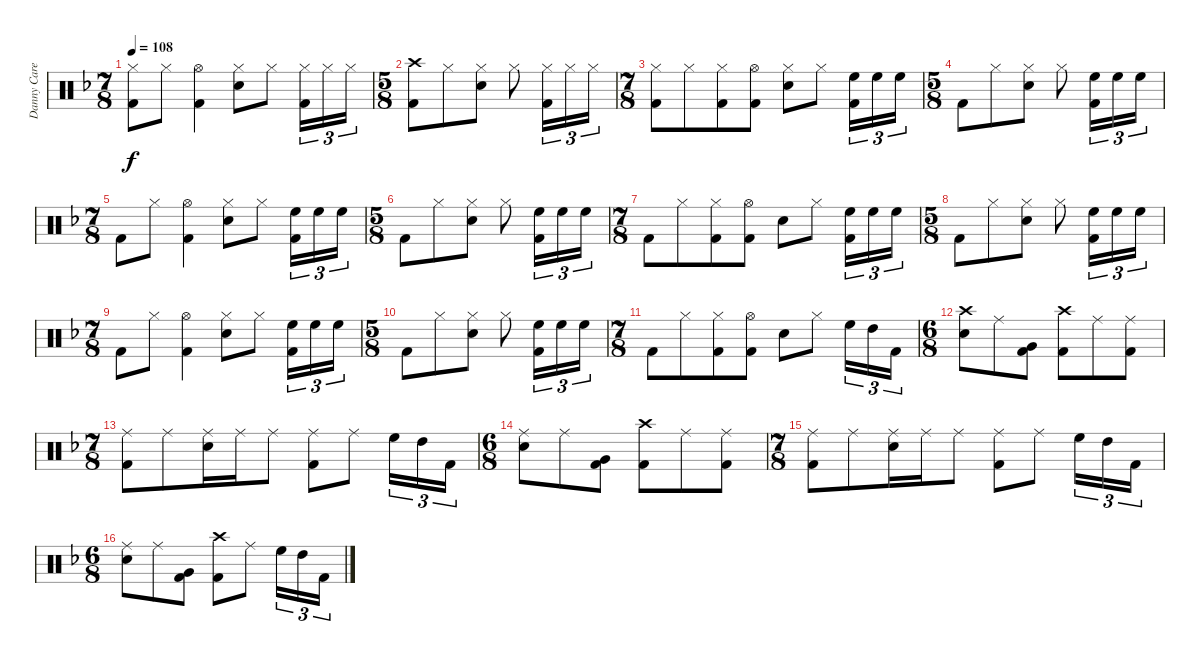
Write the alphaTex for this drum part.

\track ("Danny Carey" "Danny Care") {instrument percussion}
\staff {score}
\articulation defaults
\ts (7 8)
\tempo 108
\clef neutral
\ks dminor
("Hi-Hat (closed)" "Kick (hit) 2").8{dy f} "Hi-Hat (closed)".8 ("Hi-Hat (open)" "Kick (hit) 2").4 ("Hi-Hat (closed)" "Electric Snare (hit)").8 "Hi-Hat (closed)".8 ("Hi-Hat (closed)" "Kick (hit) 2").16{tu (3 2)} "Hi-Hat (closed)".16{tu (3 2)} "Hi-Hat (closed)".16{tu (3 2)} |
\ts (5 8)
("Crash high (hit)" "Kick (hit) 2").8 "Hi-Hat (closed)".8 ("Hi-Hat (closed)" "Electric Snare (hit)").8 "Hi-Hat (closed)".8 ("Hi-Hat (closed)" "Kick (hit) 2").16{tu (3 2)} "Hi-Hat (closed)".16{tu (3 2)} "Hi-Hat (closed)".16{tu (3 2)} |
\ts (7 8)
("Hi-Hat (closed)" "Kick (hit) 2").8 "Hi-Hat (closed)".8 ("Hi-Hat (closed)" "Kick (hit) 2").8 ("Hi-Hat (open)" "Kick (hit) 2").8 ("Hi-Hat (closed)" "Electric Snare (hit)").8 "Hi-Hat (closed)".8 ("High Floor Tom (hit)" "Kick (hit) 2").16{tu (3 2)} "High Floor Tom (hit)".16{tu (3 2)} "High Floor Tom (hit)".16{tu (3 2)} |
\ts (5 8)
"Kick (hit) 2".8 "Hi-Hat (closed)".8 ("Hi-Hat (closed)" "Electric Snare (hit)").8 "Hi-Hat (closed)".8 ("High Floor Tom (hit)" "Kick (hit) 2").16{tu (3 2)} "High Floor Tom (hit)".16{tu (3 2)} "High Floor Tom (hit)".16{tu (3 2)} |
\ts (7 8)
"Kick (hit) 2".8 "Hi-Hat (closed)".8 ("Hi-Hat (open)" "Kick (hit) 2").4 ("Hi-Hat (closed)" "Electric Snare (hit)").8 "Hi-Hat (closed)".8 ("High Floor Tom (hit)" "Kick (hit) 2").16{tu (3 2)} "High Floor Tom (hit)".16{tu (3 2)} "High Floor Tom (hit)".16{tu (3 2)} |
\ts (5 8)
"Kick (hit) 2".8 "Hi-Hat (closed)".8 ("Hi-Hat (closed)" "Electric Snare (hit)").8 "Hi-Hat (closed)".8 ("High Floor Tom (hit)" "Kick (hit) 2").16{tu (3 2)} "High Floor Tom (hit)".16{tu (3 2)} "High Floor Tom (hit)".16{tu (3 2)} |
\ts (7 8)
"Kick (hit) 2".8 "Hi-Hat (closed)".8 ("Hi-Hat (closed)" "Kick (hit) 2").8 ("Hi-Hat (open)" "Kick (hit) 2").8 "Electric Snare (hit)".8 "Hi-Hat (closed)".8 ("High Floor Tom (hit)" "Kick (hit) 2").16{tu (3 2)} "High Floor Tom (hit)".16{tu (3 2)} "High Floor Tom (hit)".16{tu (3 2)} |
\ts (5 8)
"Kick (hit) 2".8 "Hi-Hat (closed)".8 ("Hi-Hat (closed)" "Electric Snare (hit)").8 "Hi-Hat (closed)".8 ("High Floor Tom (hit)" "Kick (hit) 2").16{tu (3 2)} "High Floor Tom (hit)".16{tu (3 2)} "High Floor Tom (hit)".16{tu (3 2)} |
\ts (7 8)
"Kick (hit) 2".8 "Hi-Hat (closed)".8 ("Hi-Hat (open)" "Kick (hit) 2").4 ("Hi-Hat (closed)" "Electric Snare (hit)").8 "Hi-Hat (closed)".8 ("High Floor Tom (hit)" "Kick (hit) 2").16{tu (3 2)} "High Floor Tom (hit)".16{tu (3 2)} "High Floor Tom (hit)".16{tu (3 2)} |
\ts (5 8)
"Kick (hit) 2".8 "Hi-Hat (closed)".8 ("Hi-Hat (closed)" "Electric Snare (hit)").8 "Hi-Hat (closed)".8 ("High Floor Tom (hit)" "Kick (hit) 2").16{tu (3 2)} "High Floor Tom (hit)".16{tu (3 2)} "High Floor Tom (hit)".16{tu (3 2)} |
\ts (7 8)
"Kick (hit) 2".8 "Hi-Hat (closed)".8 ("Hi-Hat (closed)" "Kick (hit) 2").8 ("Hi-Hat (open)" "Kick (hit) 2").8 "Electric Snare (hit)".8 "Hi-Hat (closed)".8 "High Floor Tom (hit)".16{tu (3 2)} "High Tom (hit)".16{tu (3 2)} "Kick (hit) 2".16{tu (3 2)} |
\ts (6 8)
("Crash high (hit)" "Electric Snare (hit)").8 "Ride (middle)".8 ("Very Low Tom (hit)" "Kick (hit) 2").8 ("Crash high (hit)" "Kick (hit) 2").8 "Ride (middle)".8 ("Ride (middle)" "Kick (hit) 2").8 |
\ts (7 8)
("Ride (middle)" "Kick (hit) 2").8 "Ride (middle)".8 ("Ride (middle)" "Electric Snare (hit)").16 "Ride (middle)".16 "Ride (middle)".8 ("Ride (middle)" "Kick (hit) 2").8 "Ride (middle)".8 "High Floor Tom (hit)".16{tu (3 2)} "High Tom (hit)".16{tu (3 2)} "Kick (hit) 2".16{tu (3 2)} |
\ts (6 8)
("Ride (middle)" "Electric Snare (hit)").8 "Ride (middle)".8 ("Very Low Tom (hit)" "Kick (hit) 2").8 ("Crash high (hit)" "Kick (hit) 2").8 "Ride (middle)".8 ("Ride (middle)" "Kick (hit) 2").8 |
\ts (7 8)
("Ride (middle)" "Kick (hit) 2").8 "Ride (middle)".8 ("Ride (middle)" "Electric Snare (hit)").16 "Ride (middle)".16 "Ride (middle)".8 ("Ride (middle)" "Kick (hit) 2").8 "Ride (middle)".8 "High Floor Tom (hit)".16{tu (3 2)} "High Tom (hit)".16{tu (3 2)} "Kick (hit) 2".16{tu (3 2)} |
\ts (6 8)
("Ride (middle)" "Electric Snare (hit)").8 "Ride (middle)".8 ("Very Low Tom (hit)" "Kick (hit) 2").8 ("Crash high (hit)" "Kick (hit) 2").8 "Ride (middle)".8 "High Floor Tom (hit)".16{tu (3 2)} "High Tom (hit)".16{tu (3 2)} "Kick (hit) 2".16{tu (3 2)}
